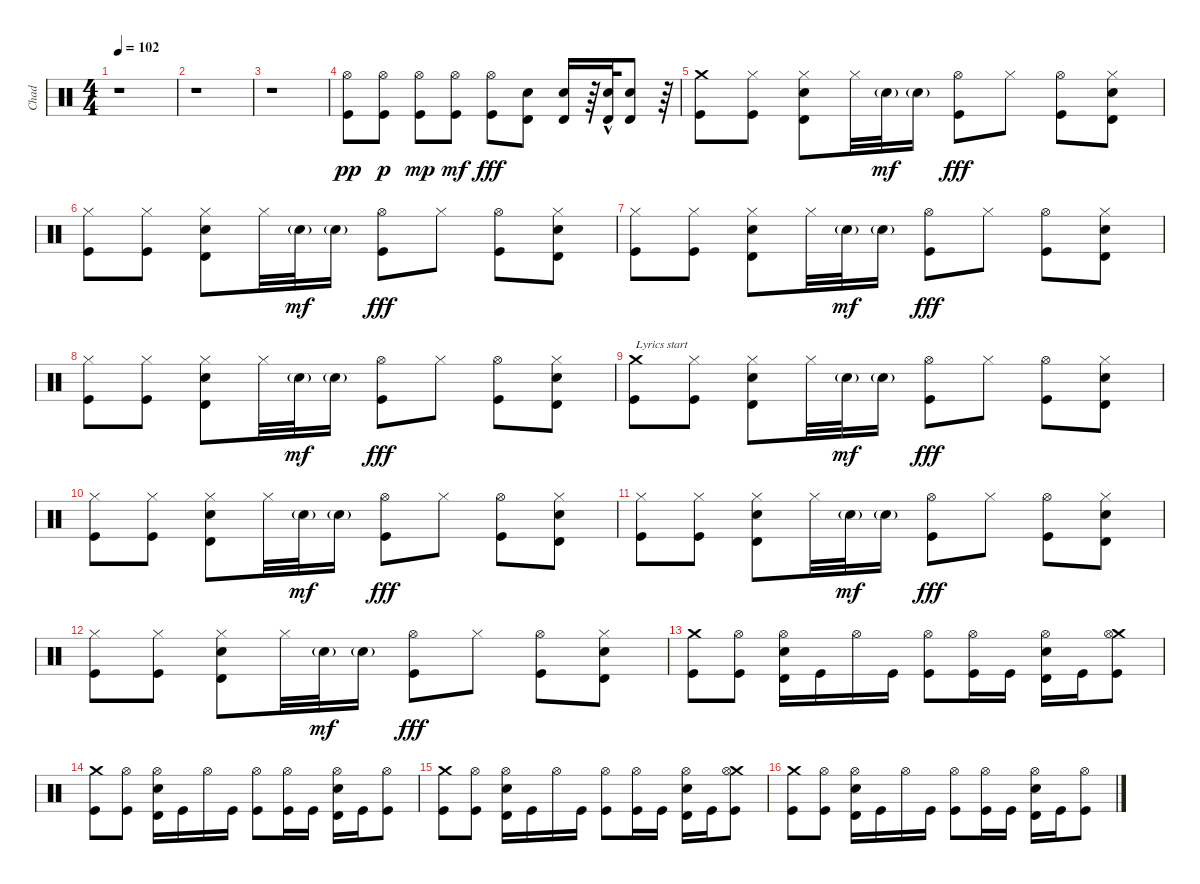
\track ("Chad" "Chad") {instrument percussion}
\staff {score}
\articulation defaults
\ts (4 4)
\tempo 102
\clef neutral
\ks c
r.1{dy pp} |
r.1 |
r.1 |
("Hi-Hat (open)" "Kick (hit)").8 ("Hi-Hat (open)" "Kick (hit)").8{dy p} ("Hi-Hat (open)" "Kick (hit)").8{dy mp} ("Hi-Hat (open)" "Kick (hit)").8{dy mf} ("Hi-Hat (open)" "Kick (hit)").8{dy fff} ("Electric Snare (hit)" "Timbale high (hit)").8 ("Electric Snare (hit)" "Timbale high (hit)").16 r.64 ("Electric Snare (hit)" "Timbale high (hit)"{hac}).32 ("Electric Snare (hit)" "Timbale high (hit)").8 r.64 |
("Crash medium (hit)" "Kick (hit)").8 ("Hi-Hat (closed)" "Kick (hit)").8 ("Hi-Hat (closed)" "Electric Snare (hit)" "Timbale high (hit)").8 "Hi-Hat (closed)".32 "Electric Snare (hit)"{g}.32{dy mf} "Electric Snare (hit)"{g}.16 ("Hi-Hat (open)" "Kick (hit)").8{dy fff} "Hi-Hat (closed)".8 ("Hi-Hat (open)" "Kick (hit)").8 ("Hi-Hat (closed)" "Electric Snare (hit)" "Timbale high (hit)").8 |
("Hi-Hat (closed)" "Kick (hit)").8 ("Hi-Hat (closed)" "Kick (hit)").8 ("Hi-Hat (closed)" "Electric Snare (hit)" "Timbale high (hit)").8 "Hi-Hat (closed)".32 "Electric Snare (hit)"{g}.32{dy mf} "Electric Snare (hit)"{g}.16 ("Hi-Hat (open)" "Kick (hit)").8{dy fff} "Hi-Hat (closed)".8 ("Hi-Hat (open)" "Kick (hit)").8 ("Hi-Hat (closed)" "Electric Snare (hit)" "Timbale high (hit)").8 |
("Hi-Hat (closed)" "Kick (hit)").8 ("Hi-Hat (closed)" "Kick (hit)").8 ("Hi-Hat (closed)" "Electric Snare (hit)" "Timbale high (hit)").8 "Hi-Hat (closed)".32 "Electric Snare (hit)"{g}.32{dy mf} "Electric Snare (hit)"{g}.16 ("Hi-Hat (open)" "Kick (hit)").8{dy fff} "Hi-Hat (closed)".8 ("Hi-Hat (open)" "Kick (hit)").8 ("Hi-Hat (closed)" "Electric Snare (hit)" "Timbale high (hit)").8 |
("Hi-Hat (closed)" "Kick (hit)").8 ("Hi-Hat (closed)" "Kick (hit)").8 ("Hi-Hat (closed)" "Electric Snare (hit)" "Timbale high (hit)").8 "Hi-Hat (closed)".32 "Electric Snare (hit)"{g}.32{dy mf} "Electric Snare (hit)"{g}.16 ("Hi-Hat (open)" "Kick (hit)").8{dy fff} "Hi-Hat (closed)".8 ("Hi-Hat (open)" "Kick (hit)").8 ("Hi-Hat (closed)" "Electric Snare (hit)" "Timbale high (hit)").8 |
("Crash medium (hit)" "Kick (hit)").8{txt "Lyrics start"} ("Hi-Hat (closed)" "Kick (hit)").8 ("Hi-Hat (closed)" "Electric Snare (hit)" "Timbale high (hit)").8 "Hi-Hat (closed)".32 "Electric Snare (hit)"{g}.32{dy mf} "Electric Snare (hit)"{g}.16 ("Hi-Hat (open)" "Kick (hit)").8{dy fff} "Hi-Hat (closed)".8 ("Hi-Hat (open)" "Kick (hit)").8 ("Hi-Hat (closed)" "Electric Snare (hit)" "Timbale high (hit)").8 |
("Hi-Hat (closed)" "Kick (hit)").8 ("Hi-Hat (closed)" "Kick (hit)").8 ("Hi-Hat (closed)" "Electric Snare (hit)" "Timbale high (hit)").8 "Hi-Hat (closed)".32 "Electric Snare (hit)"{g}.32{dy mf} "Electric Snare (hit)"{g}.16 ("Hi-Hat (open)" "Kick (hit)").8{dy fff} "Hi-Hat (closed)".8 ("Hi-Hat (open)" "Kick (hit)").8 ("Hi-Hat (closed)" "Electric Snare (hit)" "Timbale high (hit)").8 |
("Hi-Hat (closed)" "Kick (hit)").8 ("Hi-Hat (closed)" "Kick (hit)").8 ("Hi-Hat (closed)" "Electric Snare (hit)" "Timbale high (hit)").8 "Hi-Hat (closed)".32 "Electric Snare (hit)"{g}.32{dy mf} "Electric Snare (hit)"{g}.16 ("Hi-Hat (open)" "Kick (hit)").8{dy fff} "Hi-Hat (closed)".8 ("Hi-Hat (open)" "Kick (hit)").8 ("Hi-Hat (closed)" "Electric Snare (hit)" "Timbale high (hit)").8 |
("Hi-Hat (closed)" "Kick (hit)").8 ("Hi-Hat (closed)" "Kick (hit)").8 ("Hi-Hat (closed)" "Electric Snare (hit)" "Timbale high (hit)").8 "Hi-Hat (closed)".32 "Electric Snare (hit)"{g}.32{dy mf} "Electric Snare (hit)"{g}.16 ("Hi-Hat (open)" "Kick (hit)").8{dy fff} "Hi-Hat (closed)".8 ("Hi-Hat (open)" "Kick (hit)").8 ("Hi-Hat (closed)" "Electric Snare (hit)" "Timbale high (hit)").8 |
("Crash medium (hit)" "Kick (hit)").8 ("Hi-Hat (open)" "Kick (hit)").8 ("Hi-Hat (open)" "Electric Snare (hit)" "Timbale high (hit)").16 "Kick (hit)".16 "Hi-Hat (open)".16 "Kick (hit)".16 ("Hi-Hat (open)" "Kick (hit)").8 ("Hi-Hat (open)" "Kick (hit)").16 "Kick (hit)".16 ("Hi-Hat (open)" "Electric Snare (hit)" "Timbale high (hit)").16 "Kick (hit)".16 ("Crash medium (hit)" "Hi-Hat (open)" "Kick (hit)").8 |
("Crash medium (hit)" "Kick (hit)").8 ("Hi-Hat (open)" "Kick (hit)").8 ("Hi-Hat (open)" "Electric Snare (hit)" "Timbale high (hit)").16 "Kick (hit)".16 "Hi-Hat (open)".16 "Kick (hit)".16 ("Hi-Hat (open)" "Kick (hit)").8 ("Hi-Hat (open)" "Kick (hit)").16 "Kick (hit)".16 ("Hi-Hat (open)" "Electric Snare (hit)" "Timbale high (hit)").16 "Kick (hit)".16 ("Hi-Hat (open)" "Kick (hit)").8 |
("Crash medium (hit)" "Kick (hit)").8 ("Hi-Hat (open)" "Kick (hit)").8 ("Hi-Hat (open)" "Electric Snare (hit)" "Timbale high (hit)").16 "Kick (hit)".16 "Hi-Hat (open)".16 "Kick (hit)".16 ("Hi-Hat (open)" "Kick (hit)").8 ("Hi-Hat (open)" "Kick (hit)").16 "Kick (hit)".16 ("Hi-Hat (open)" "Electric Snare (hit)" "Timbale high (hit)").16 "Kick (hit)".16 ("Crash medium (hit)" "Hi-Hat (open)" "Kick (hit)").8 |
("Crash medium (hit)" "Kick (hit)").8 ("Hi-Hat (open)" "Kick (hit)").8 ("Hi-Hat (open)" "Electric Snare (hit)" "Timbale high (hit)").16 "Kick (hit)".16 "Hi-Hat (open)".16 "Kick (hit)".16 ("Hi-Hat (open)" "Kick (hit)").8 ("Hi-Hat (open)" "Kick (hit)").16 "Kick (hit)".16 ("Hi-Hat (open)" "Electric Snare (hit)" "Timbale high (hit)").16 "Kick (hit)".16 ("Hi-Hat (open)" "Kick (hit)").8
